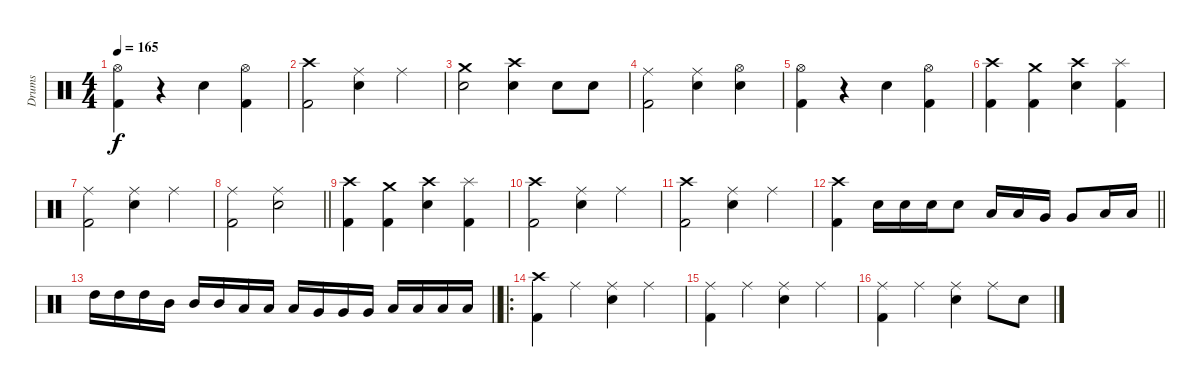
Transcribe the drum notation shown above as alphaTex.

\track ("Drums" "Drums") {instrument percussion}
\staff {score}
\articulation defaults
\ts (4 4)
\tempo 165
\clef neutral
\ks c
("Kick (hit) 2" "Hi-Hat (open)").4{dy f} r.4 "Snare (hit) 2".4 ("Kick (hit) 2" "Hi-Hat (open)").4 |
("Kick (hit) 2" "Crash high (hit)").2 ("Snare (hit) 2" "Ride (middle)").4 "Ride (middle)".4 |
("Snare (hit) 2" "Crash medium (hit)").2 ("Snare (hit) 2" "Crash high (hit)").4 "Snare (hit) 2".8 "Snare (hit) 2".8 |
("Kick (hit) 2" "Ride (middle)").2 ("Snare (hit) 2" "Ride (middle)").4 ("Snare (hit) 2" "Hi-Hat (open)").4 |
("Kick (hit) 2" "Hi-Hat (open)").4 r.4 "Snare (hit) 2".4 ("Kick (hit) 2" "Hi-Hat (open)").4 |
("Kick (hit) 2" "Crash high (hit)").4 ("Kick (hit) 2" "Crash medium (hit)").4 ("Snare (hit) 2" "Crash high (hit)").4 ("Kick (hit) 2" "Splash (hit)").4 |
("Kick (hit) 2" "Ride (middle)").2 ("Snare (hit) 2" "Ride (middle)").4 "Ride (middle)".4 |
\barLineRight lightlight
("Kick (hit) 2" "Ride (middle)").2 ("Snare (hit) 2" "Ride (middle)").2 |
("Kick (hit) 2" "Crash high (hit)").4 ("Kick (hit) 2" "Crash medium (hit)").4 ("Snare (hit) 2" "Crash high (hit)").4 ("Kick (hit) 2" "Splash (hit)").4 |
("Kick (hit) 2" "Crash high (hit)").2 ("Snare (hit) 2" "Ride (middle)").4 "Ride (middle)".4 |
("Kick (hit) 2" "Crash high (hit)").2 ("Snare (hit) 2" "Ride (middle)").4 "Ride (middle)".4 |
\barLineRight lightlight
("Kick (hit) 2" "Crash high (hit)").4 "Snare (hit) 2".16 "Snare (hit) 2".16 "Snare (hit) 2".16 "Snare (hit) 2".8 "Low Tom (hit)".16 "Low Tom (hit)".16 "Very Low Tom (hit)".16 "Very Low Tom (hit)".8 "Low Floor Tom (hit)".16 "Low Floor Tom (hit)".16 |
\barLineRight lightlight "High Tom (hit)".16 "High Tom (hit)".16 "High Tom (hit)".16 "Mid Tom (hit)".16 "Mid Tom (hit)".16 "Mid Tom (hit)".16 "Low Tom (hit)".16 "Low Tom (hit)".16 "Low Tom (hit)".16 "Very Low Tom (hit)".16 "Very Low Tom (hit)".16 "Very Low Tom (hit)".16 "Low Floor Tom (hit)".16 "Low Floor Tom (hit)".16 "Low Floor Tom (hit)".16 "Low Floor Tom (hit)".16
|
\ro
("Crash high (hit)" "Kick (hit) 2").4 "Ride (middle)".4 ("Ride (middle)" "Snare (hit) 2").4 "Ride (middle)".4 |
("Ride (middle)" "Kick (hit) 2").4 "Ride (middle)".4 ("Ride (middle)" "Snare (hit) 2").4 "Ride (middle)".4 |
("Ride (middle)" "Kick (hit) 2").4 "Ride (middle)".4 ("Ride (middle)" "Snare (hit) 2").4 "Ride (middle)".8 "Snare (hit) 2".8
